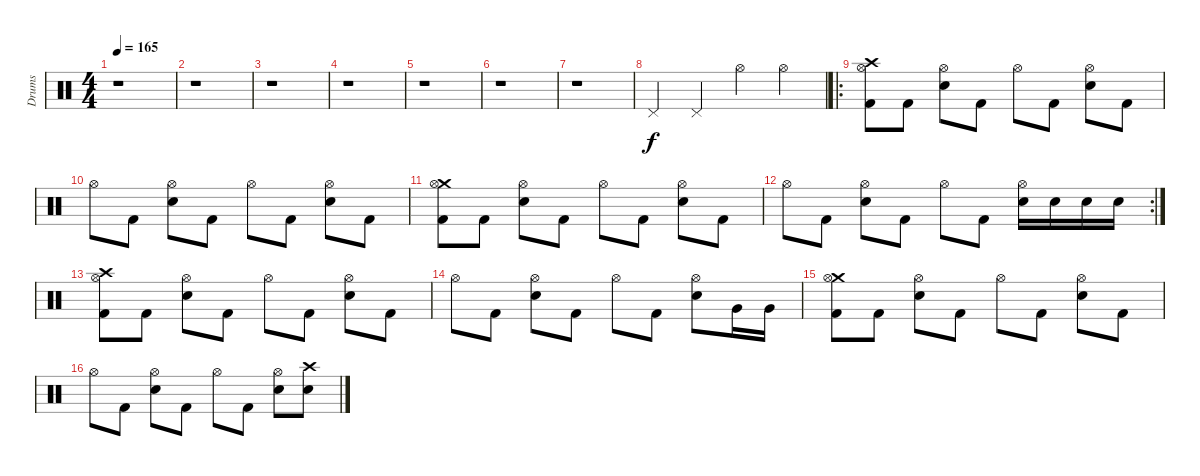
\track ("Drums" "Drums") {instrument percussion}
\staff {score}
\articulation defaults
\ts (4 4)
\tempo 165
\clef neutral
\ks c
r.1{dy f} |
r.1 |
r.1 |
r.1 |
r.1 |
r.1 |
r.1 |
"Pedal Hi-Hat (hit)".4 "Pedal Hi-Hat (hit)".4 "Hi-Hat (open)".4 "Hi-Hat (open)".4 |
\ro
("Crash high (hit)" "Hi-Hat (open)" "Kick (hit) 2").8 "Kick (hit) 2".8 ("Hi-Hat (open)" "Snare (hit) 2").8 "Kick (hit) 2".8 "Hi-Hat (open)".8 "Kick (hit) 2".8 ("Hi-Hat (open)" "Snare (hit) 2").8 "Kick (hit) 2".8 |
"Hi-Hat (open)".8 "Kick (hit) 2".8 ("Hi-Hat (open)" "Snare (hit) 2").8 "Kick (hit) 2".8 "Hi-Hat (open)".8 "Kick (hit) 2".8 ("Hi-Hat (open)" "Snare (hit) 2").8 "Kick (hit) 2".8 |
("Crash medium (hit)" "Hi-Hat (open)" "Kick (hit) 2").8 "Kick (hit) 2".8 ("Hi-Hat (open)" "Snare (hit) 2").8 "Kick (hit) 2".8 "Hi-Hat (open)".8 "Kick (hit) 2".8 ("Hi-Hat (open)" "Snare (hit) 2").8 "Kick (hit) 2".8 |
\rc 2 "Hi-Hat (open)".8 "Kick (hit) 2".8
("Hi-Hat (open)" "Snare (hit) 2").8 "Kick (hit) 2".8 "Hi-Hat (open)".8 "Kick (hit) 2".8 ("Hi-Hat (open)" "Snare (hit) 2").16 "Snare (hit) 2".16 "Snare (hit) 2".16 "Snare (hit) 2".16 |
("Crash high (hit)" "Hi-Hat (open)" "Kick (hit) 2").8 "Kick (hit) 2".8 ("Hi-Hat (open)" "Snare (hit) 2").8 "Kick (hit) 2".8 "Hi-Hat (open)".8 "Kick (hit) 2".8 ("Hi-Hat (open)" "Snare (hit) 2").8 "Kick (hit) 2".8 |
"Hi-Hat (open)".8 "Kick (hit) 2".8 ("Hi-Hat (open)" "Snare (hit) 2").8 "Kick (hit) 2".8 "Hi-Hat (open)".8 "Kick (hit) 2".8 ("Hi-Hat (open)" "Snare (hit) 2").8 "Very Low Tom (hit)".16 "Very Low Tom (hit)".16 |
("Crash medium (hit)" "Hi-Hat (open)" "Kick (hit) 2").8 "Kick (hit) 2".8 ("Hi-Hat (open)" "Snare (hit) 2").8 "Kick (hit) 2".8 "Hi-Hat (open)".8 "Kick (hit) 2".8 ("Hi-Hat (open)" "Snare (hit) 2").8 "Kick (hit) 2".8 |
"Hi-Hat (open)".8 "Kick (hit) 2".8 ("Hi-Hat (open)" "Snare (hit) 2").8 "Kick (hit) 2".8 "Hi-Hat (open)".8 "Kick (hit) 2".8 ("Hi-Hat (open)" "Snare (hit) 2").8 ("Crash high (hit)" "Snare (hit) 2").8
